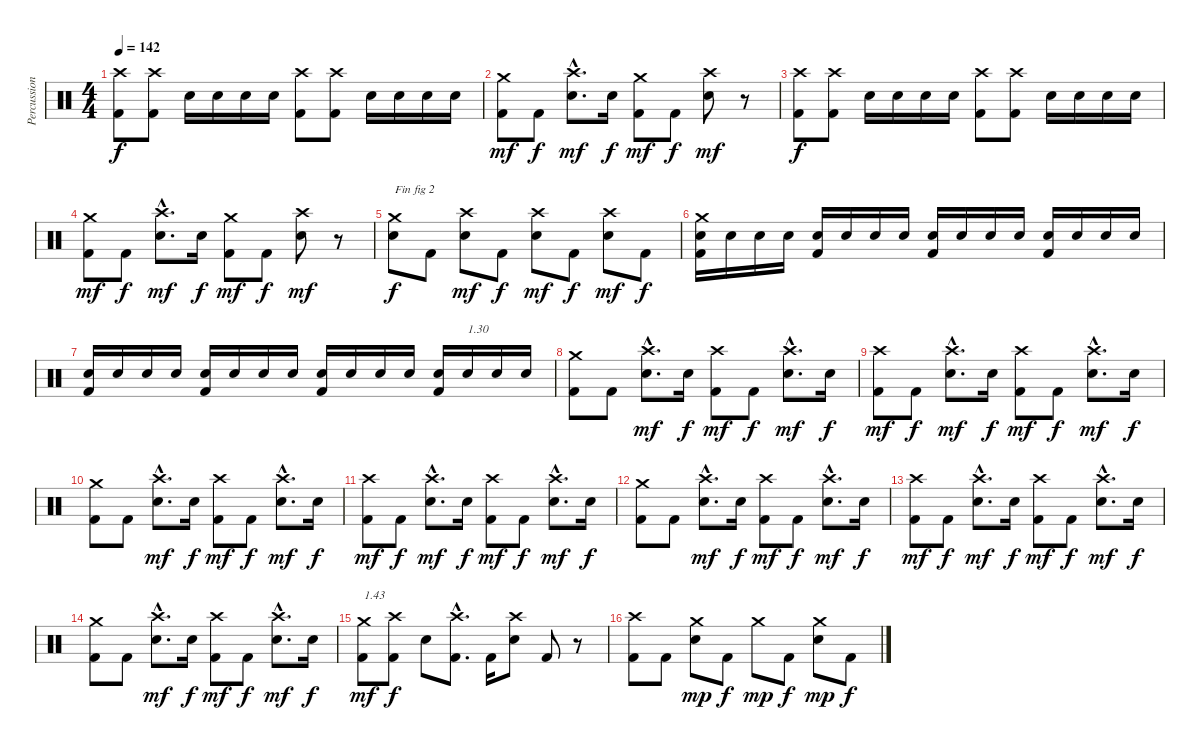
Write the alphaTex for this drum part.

\track ("Percussions" "Percussion") {instrument percussion}
\staff {score}
\articulation defaults
\ts (4 4)
\tempo 142
\clef neutral
\ks c
("Kick (hit) 2" "Crash high (hit)").8{dy f} ("Kick (hit) 2" "Crash high (hit)").8 "Electric Snare (hit)".16 "Electric Snare (hit)".16 "Electric Snare (hit)".16 "Electric Snare (hit)".16 ("Kick (hit) 2" "Crash high (hit)").8 ("Kick (hit) 2" "Crash high (hit)").8 "Electric Snare (hit)".16 "Electric Snare (hit)".16 "Electric Snare (hit)".16 "Electric Snare (hit)".16 |
("Kick (hit) 2" "Crash medium (hit)").8{dy mf} "Kick (hit) 2".8{dy f} ("Electric Snare (hit)"{hac} "Crash high (hit)"{hac}).8{d dy mf} "Electric Snare (hit)".16{dy f} ("Kick (hit) 2" "Crash medium (hit)").8{dy mf} "Kick (hit) 2".8{dy f} ("Electric Snare (hit)" "Crash high (hit)").8{dy mf} r.8 |
("Kick (hit) 2" "Crash high (hit)").8{dy f} ("Kick (hit) 2" "Crash high (hit)").8 "Electric Snare (hit)".16 "Electric Snare (hit)".16 "Electric Snare (hit)".16 "Electric Snare (hit)".16 ("Kick (hit) 2" "Crash high (hit)").8 ("Kick (hit) 2" "Crash high (hit)").8 "Electric Snare (hit)".16 "Electric Snare (hit)".16 "Electric Snare (hit)".16 "Electric Snare (hit)".16 |
("Kick (hit) 2" "Crash medium (hit)").8{dy mf} "Kick (hit) 2".8{dy f} ("Electric Snare (hit)"{hac} "Crash high (hit)"{hac}).8{d dy mf} "Electric Snare (hit)".16{dy f} ("Kick (hit) 2" "Crash medium (hit)").8{dy mf} "Kick (hit) 2".8{dy f} ("Electric Snare (hit)" "Crash high (hit)").8{dy mf} r.8 |
("Electric Snare (hit)" "Crash medium (hit)").8{txt "Fin fig 2" dy f} "Kick (hit) 2".8 ("Electric Snare (hit)" "Crash high (hit)").8{dy mf} "Kick (hit) 2".8{dy f} ("Electric Snare (hit)" "Crash high (hit)").8{dy mf} "Kick (hit) 2".8{dy f} ("Electric Snare (hit)" "Crash high (hit)").8{dy mf} "Kick (hit) 2".8{dy f} |
("Electric Snare (hit)" "Kick (hit) 2" "Crash medium (hit)").16 "Electric Snare (hit)".16 "Electric Snare (hit)".16 "Electric Snare (hit)".16 ("Electric Snare (hit)" "Kick (hit) 2").16 "Electric Snare (hit)".16 "Electric Snare (hit)".16 "Electric Snare (hit)".16 ("Electric Snare (hit)" "Kick (hit) 2").16 "Electric Snare (hit)".16 "Electric Snare (hit)".16 "Electric Snare (hit)".16 ("Electric Snare (hit)" "Kick (hit) 2").16 "Electric Snare (hit)".16 "Electric Snare (hit)".16 "Electric Snare (hit)".16 |
("Electric Snare (hit)" "Kick (hit) 2").16 "Electric Snare (hit)".16 "Electric Snare (hit)".16 "Electric Snare (hit)".16 ("Electric Snare (hit)" "Kick (hit) 2").16 "Electric Snare (hit)".16 "Electric Snare (hit)".16 "Electric Snare (hit)".16 ("Electric Snare (hit)" "Kick (hit) 2").16 "Electric Snare (hit)".16 "Electric Snare (hit)".16 "Electric Snare (hit)".16 ("Electric Snare (hit)" "Kick (hit) 2").16 "Electric Snare (hit)".16{txt "1.30"} "Electric Snare (hit)".16 "Electric Snare (hit)".16 |
("Kick (hit) 2" "Crash medium (hit)").8 "Kick (hit) 2".8 ("Electric Snare (hit)"{hac} "Crash high (hit)"{hac}).8{d dy mf} "Electric Snare (hit)".16{dy f} ("Kick (hit) 2" "Crash high (hit)").8{dy mf} "Kick (hit) 2".8{dy f} ("Electric Snare (hit)"{hac} "Crash high (hit)"{hac}).8{d dy mf} "Electric Snare (hit)".16{dy f} |
("Kick (hit) 2" "Crash high (hit)").8{dy mf} "Kick (hit) 2".8{dy f} ("Electric Snare (hit)"{hac} "Crash high (hit)"{hac}).8{d dy mf} "Electric Snare (hit)".16{dy f} ("Kick (hit) 2" "Crash high (hit)").8{dy mf} "Kick (hit) 2".8{dy f} ("Electric Snare (hit)"{hac} "Crash high (hit)"{hac}).8{d dy mf} "Electric Snare (hit)".16{dy f} |
("Kick (hit) 2" "Crash medium (hit)").8 "Kick (hit) 2".8 ("Electric Snare (hit)"{hac} "Crash high (hit)"{hac}).8{d dy mf} "Electric Snare (hit)".16{dy f} ("Kick (hit) 2" "Crash high (hit)").8{dy mf} "Kick (hit) 2".8{dy f} ("Electric Snare (hit)"{hac} "Crash high (hit)"{hac}).8{d dy mf} "Electric Snare (hit)".16{dy f} |
("Kick (hit) 2" "Crash high (hit)").8{dy mf} "Kick (hit) 2".8{dy f} ("Electric Snare (hit)"{hac} "Crash high (hit)"{hac}).8{d dy mf} "Electric Snare (hit)".16{dy f} ("Kick (hit) 2" "Crash high (hit)").8{dy mf} "Kick (hit) 2".8{dy f} ("Electric Snare (hit)"{hac} "Crash high (hit)"{hac}).8{d dy mf} "Electric Snare (hit)".16{dy f} |
("Kick (hit) 2" "Crash medium (hit)").8 "Kick (hit) 2".8 ("Electric Snare (hit)"{hac} "Crash high (hit)"{hac}).8{d dy mf} "Electric Snare (hit)".16{dy f} ("Kick (hit) 2" "Crash high (hit)").8{dy mf} "Kick (hit) 2".8{dy f} ("Electric Snare (hit)"{hac} "Crash high (hit)"{hac}).8{d dy mf} "Electric Snare (hit)".16{dy f} |
("Kick (hit) 2" "Crash high (hit)").8{dy mf} "Kick (hit) 2".8{dy f} ("Electric Snare (hit)"{hac} "Crash high (hit)"{hac}).8{d dy mf} "Electric Snare (hit)".16{dy f} ("Kick (hit) 2" "Crash high (hit)").8{dy mf} "Kick (hit) 2".8{dy f} ("Electric Snare (hit)"{hac} "Crash high (hit)"{hac}).8{d dy mf} "Electric Snare (hit)".16{dy f} |
("Kick (hit) 2" "Crash medium (hit)").8 "Kick (hit) 2".8 ("Electric Snare (hit)"{hac} "Crash high (hit)"{hac}).8{d dy mf} "Electric Snare (hit)".16{dy f} ("Kick (hit) 2" "Crash high (hit)").8{dy mf} "Kick (hit) 2".8{dy f} ("Electric Snare (hit)"{hac} "Crash high (hit)"{hac}).8{d dy mf} "Electric Snare (hit)".16{dy f} |
("Kick (hit) 2" "Crash medium (hit)").8{txt "1.43" dy mf} ("Kick (hit) 2" "Crash high (hit)").8{dy f} "Electric Snare (hit)".8 ("Kick (hit) 2"{hac} "Crash high (hit)"{hac}).8{d} "Kick (hit) 2".16 ("Electric Snare (hit)" "Crash high (hit)").8 "Kick (hit) 2".8 r.8 |
("Kick (hit) 2" "Crash high (hit)").8 "Kick (hit) 2".8 ("Electric Snare (hit)" "Crash medium (hit)").8{dy mp} "Kick (hit) 2".8{dy f} "Crash medium (hit)".8{dy mp} "Kick (hit) 2".8{dy f} ("Electric Snare (hit)" "Crash medium (hit)").8{dy mp} "Kick (hit) 2".8{dy f}
